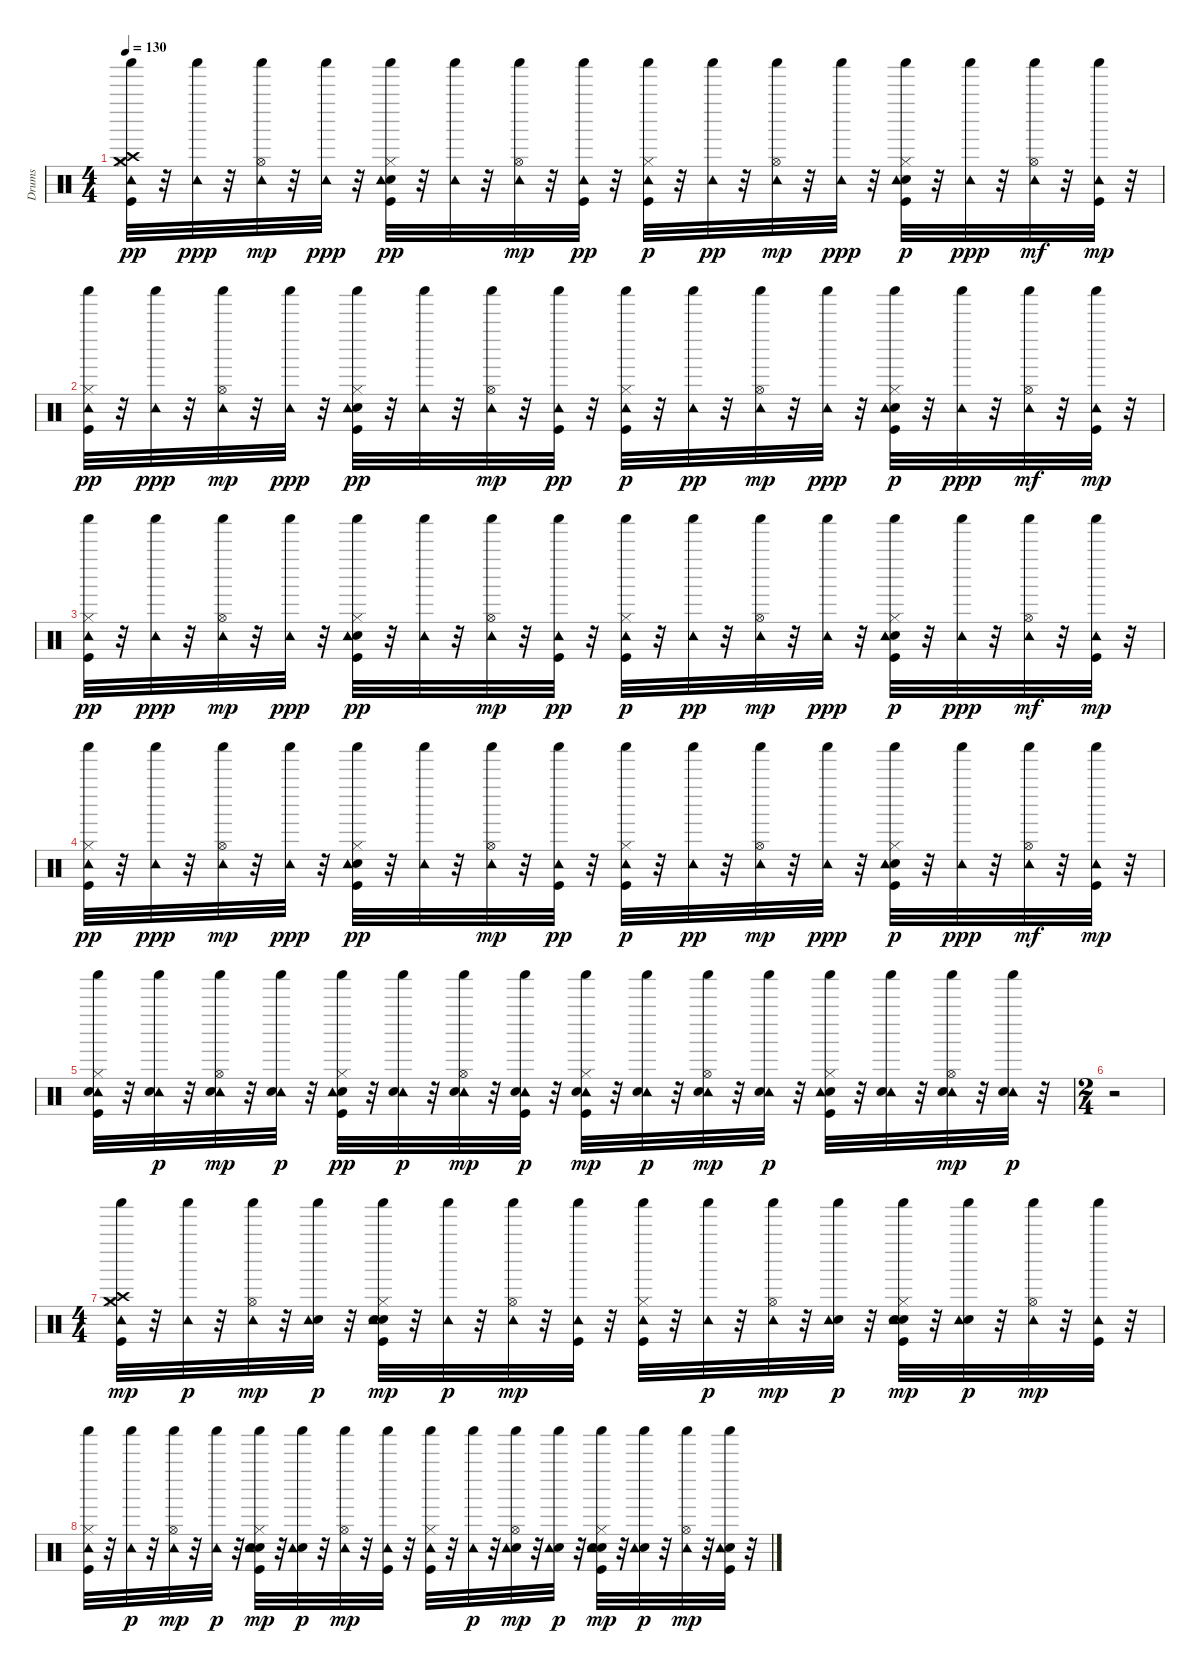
\track ("Drums" "Drums") {instrument percussion}
\staff {score}
\articulation defaults
\ts (4 4)
\tempo 130
\clef neutral
\ks c
("Kick (hit)" "Hi-Hat (closed)" "Crash high (hit)" "Crash medium (hit)" "Shaker (hit)" "Tambourine (hit)").32{dy pp} r.32 ("Shaker (hit)" "Tambourine (hit)").32{dy ppp} r.32 ("Hi-Hat (open)" "Shaker (hit)" "Tambourine (hit)").32{dy mp} r.32 ("Shaker (hit)" "Tambourine (hit)").32{dy ppp} r.32 ("Kick (hit)" "Hi-Hat (closed)" "Shaker (hit)" "Snare (hit) 2" "Tambourine (hit)").32{dy pp} r.32 ("Shaker (hit)" "Tambourine (hit)").32 r.32 ("Hi-Hat (open)" "Shaker (hit)" "Tambourine (hit)").32{dy mp} r.32 ("Shaker (hit)" "Kick (hit)" "Tambourine (hit)").32{dy pp} r.32 ("Kick (hit)" "Hi-Hat (closed)" "Shaker (hit)" "Tambourine (hit)").32{dy p} r.32 ("Shaker (hit)" "Tambourine (hit)").32{dy pp} r.32 ("Hi-Hat (open)" "Shaker (hit)" "Tambourine (hit)").32{dy mp} r.32 ("Shaker (hit)" "Tambourine (hit)").32{dy ppp} r.32 ("Kick (hit)" "Hi-Hat (closed)" "Shaker (hit)" "Snare (hit) 2" "Tambourine (hit)").32{dy p} r.32 ("Shaker (hit)" "Tambourine (hit)").32{dy ppp} r.32 ("Hi-Hat (open)" "Shaker (hit)" "Tambourine (hit)").32{dy mf} r.32 ("Shaker (hit)" "Tambourine (hit)" "Kick (hit)").32{dy mp} r.32 |
("Kick (hit)" "Hi-Hat (closed)" "Shaker (hit)" "Tambourine (hit)").32{dy pp} r.32 ("Shaker (hit)" "Tambourine (hit)").32{dy ppp} r.32 ("Hi-Hat (open)" "Shaker (hit)" "Tambourine (hit)").32{dy mp} r.32 ("Shaker (hit)" "Tambourine (hit)").32{dy ppp} r.32 ("Kick (hit)" "Hi-Hat (closed)" "Shaker (hit)" "Snare (hit) 2" "Tambourine (hit)").32{dy pp} r.32 ("Shaker (hit)" "Tambourine (hit)").32 r.32 ("Hi-Hat (open)" "Shaker (hit)" "Tambourine (hit)").32{dy mp} r.32 ("Shaker (hit)" "Kick (hit)" "Tambourine (hit)").32{dy pp} r.32 ("Kick (hit)" "Hi-Hat (closed)" "Shaker (hit)" "Tambourine (hit)").32{dy p} r.32 ("Shaker (hit)" "Tambourine (hit)").32{dy pp} r.32 ("Hi-Hat (open)" "Shaker (hit)" "Tambourine (hit)").32{dy mp} r.32 ("Shaker (hit)" "Tambourine (hit)").32{dy ppp} r.32 ("Kick (hit)" "Hi-Hat (closed)" "Shaker (hit)" "Snare (hit) 2" "Tambourine (hit)").32{dy p} r.32 ("Shaker (hit)" "Tambourine (hit)").32{dy ppp} r.32 ("Hi-Hat (open)" "Shaker (hit)" "Tambourine (hit)").32{dy mf} r.32 ("Shaker (hit)" "Tambourine (hit)" "Kick (hit)").32{dy mp} r.32 |
("Kick (hit)" "Hi-Hat (closed)" "Shaker (hit)" "Tambourine (hit)").32{dy pp} r.32 ("Shaker (hit)" "Tambourine (hit)").32{dy ppp} r.32 ("Hi-Hat (open)" "Shaker (hit)" "Tambourine (hit)").32{dy mp} r.32 ("Shaker (hit)" "Tambourine (hit)").32{dy ppp} r.32 ("Kick (hit)" "Hi-Hat (closed)" "Shaker (hit)" "Snare (hit) 2" "Tambourine (hit)").32{dy pp} r.32 ("Shaker (hit)" "Tambourine (hit)").32 r.32 ("Hi-Hat (open)" "Shaker (hit)" "Tambourine (hit)").32{dy mp} r.32 ("Shaker (hit)" "Kick (hit)" "Tambourine (hit)").32{dy pp} r.32 ("Kick (hit)" "Hi-Hat (closed)" "Shaker (hit)" "Tambourine (hit)").32{dy p} r.32 ("Shaker (hit)" "Tambourine (hit)").32{dy pp} r.32 ("Hi-Hat (open)" "Shaker (hit)" "Tambourine (hit)").32{dy mp} r.32 ("Shaker (hit)" "Tambourine (hit)").32{dy ppp} r.32 ("Kick (hit)" "Hi-Hat (closed)" "Shaker (hit)" "Snare (hit) 2" "Tambourine (hit)").32{dy p} r.32 ("Shaker (hit)" "Tambourine (hit)").32{dy ppp} r.32 ("Hi-Hat (open)" "Shaker (hit)" "Tambourine (hit)").32{dy mf} r.32 ("Shaker (hit)" "Tambourine (hit)" "Kick (hit)").32{dy mp} r.32 |
("Kick (hit)" "Hi-Hat (closed)" "Shaker (hit)" "Tambourine (hit)").32{dy pp} r.32 ("Shaker (hit)" "Tambourine (hit)").32{dy ppp} r.32 ("Hi-Hat (open)" "Shaker (hit)" "Tambourine (hit)").32{dy mp} r.32 ("Shaker (hit)" "Tambourine (hit)").32{dy ppp} r.32 ("Kick (hit)" "Hi-Hat (closed)" "Shaker (hit)" "Snare (hit) 2" "Tambourine (hit)").32{dy pp} r.32 ("Shaker (hit)" "Tambourine (hit)").32 r.32 ("Hi-Hat (open)" "Shaker (hit)" "Tambourine (hit)").32{dy mp} r.32 ("Shaker (hit)" "Kick (hit)" "Tambourine (hit)").32{dy pp} r.32 ("Kick (hit)" "Hi-Hat (closed)" "Shaker (hit)" "Tambourine (hit)").32{dy p} r.32 ("Shaker (hit)" "Tambourine (hit)").32{dy pp} r.32 ("Hi-Hat (open)" "Shaker (hit)" "Tambourine (hit)").32{dy mp} r.32 ("Shaker (hit)" "Tambourine (hit)").32{dy ppp} r.32 ("Kick (hit)" "Hi-Hat (closed)" "Shaker (hit)" "Snare (hit) 2" "Tambourine (hit)").32{dy p} r.32 ("Shaker (hit)" "Tambourine (hit)").32{dy ppp} r.32 ("Hi-Hat (open)" "Shaker (hit)" "Tambourine (hit)").32{dy mf} r.32 ("Shaker (hit)" "Tambourine (hit)" "Kick (hit)").32{dy mp} r.32 |
("Kick (hit)" "Hi-Hat (closed)" "Shaker (hit)" "Tambourine (hit)" "Snare (hit) 2").32 r.32 ("Shaker (hit)" "Tambourine (hit)" "Snare (hit) 2").32{dy p} r.32 ("Hi-Hat (open)" "Shaker (hit)" "Tambourine (hit)" "Snare (hit) 2").32{dy mp} r.32 ("Shaker (hit)" "Tambourine (hit)" "Snare (hit) 2").32{dy p} r.32 ("Kick (hit)" "Hi-Hat (closed)" "Shaker (hit)" "Snare (hit) 2" "Tambourine (hit)").32{dy pp} r.32 ("Shaker (hit)" "Tambourine (hit)" "Snare (hit) 2").32{dy p} r.32 ("Hi-Hat (open)" "Shaker (hit)" "Tambourine (hit)" "Snare (hit) 2").32{dy mp} r.32 ("Shaker (hit)" "Kick (hit)" "Tambourine (hit)" "Snare (hit) 2").32{dy p} r.32 ("Kick (hit)" "Hi-Hat (closed)" "Shaker (hit)" "Tambourine (hit)" "Snare (hit) 2").32{dy mp} r.32 ("Shaker (hit)" "Tambourine (hit)" "Snare (hit) 2").32{dy p} r.32 ("Hi-Hat (open)" "Shaker (hit)" "Tambourine (hit)" "Snare (hit) 2").32{dy mp} r.32 ("Shaker (hit)" "Tambourine (hit)" "Snare (hit) 2").32{dy p} r.32 ("Kick (hit)" "Hi-Hat (closed)" "Shaker (hit)" "Snare (hit) 2" "Tambourine (hit)").32 r.32 ("Shaker (hit)" "Tambourine (hit)" "Snare (hit) 2").32 r.32 ("Hi-Hat (open)" "Shaker (hit)" "Tambourine (hit)" "Snare (hit) 2").32{dy mp} r.32 ("Shaker (hit)" "Tambourine (hit)" "Snare (hit) 2").32{dy p} r.32 |
\ts (2 4)
r.2 |
\ts (4 4)
("Kick (hit)" "Hi-Hat (closed)" "Crash high (hit)" "Crash medium (hit)" "Tambourine (hit)" "Shaker (hit)").32{dy mp} r.32 ("Tambourine (hit)" "Shaker (hit)").32{dy p} r.32 ("Tambourine (hit)" "Hi-Hat (open)" "Shaker (hit)").32{dy mp} r.32 ("Electric Snare (hit)" "Tambourine (hit)" "Shaker (hit)").32{dy p} r.32 ("Kick (hit)" "Hi-Hat (closed)" "Hand Clap (hit)" "Tambourine (hit)" "Shaker (hit)" "Snare (hit) 2").32{dy mp} r.32 ("Tambourine (hit)" "Shaker (hit)").32{dy p} r.32 ("Tambourine (hit)" "Hi-Hat (open)" "Shaker (hit)").32{dy mp} r.32 ("Tambourine (hit)" "Shaker (hit)" "Kick (hit)").32 r.32 ("Kick (hit)" "Hi-Hat (closed)" "Tambourine (hit)" "Shaker (hit)").32 r.32 ("Tambourine (hit)" "Shaker (hit)").32{dy p} r.32 ("Tambourine (hit)" "Hi-Hat (open)" "Shaker (hit)").32{dy mp} r.32 ("Electric Snare (hit)" "Tambourine (hit)" "Shaker (hit)").32{dy p} r.32 ("Kick (hit)" "Hi-Hat (closed)" "Hand Clap (hit)" "Tambourine (hit)" "Shaker (hit)" "Snare (hit) 2").32{dy mp} r.32 ("Electric Snare (hit)" "Tambourine (hit)" "Shaker (hit)").32{dy p} r.32 ("Tambourine (hit)" "Hi-Hat (open)" "Shaker (hit)").32{dy mp} r.32 ("Tambourine (hit)" "Shaker (hit)" "Kick (hit)").32 r.32 |
("Kick (hit)" "Hi-Hat (closed)" "Tambourine (hit)" "Shaker (hit)").32 r.32 ("Tambourine (hit)" "Shaker (hit)").32{dy p} r.32 ("Tambourine (hit)" "Hi-Hat (open)" "Shaker (hit)").32{dy mp} r.32 ("Tambourine (hit)" "Shaker (hit)").32{dy p} r.32 ("Kick (hit)" "Hi-Hat (closed)" "Hand Clap (hit)" "Tambourine (hit)" "Shaker (hit)" "Snare (hit) 2").32{dy mp} r.32 ("Electric Snare (hit)" "Tambourine (hit)" "Shaker (hit)").32{dy p} r.32 ("Tambourine (hit)" "Hi-Hat (open)" "Shaker (hit)").32{dy mp} r.32 ("Tambourine (hit)" "Shaker (hit)" "Kick (hit)").32 r.32 ("Kick (hit)" "Hi-Hat (closed)" "Tambourine (hit)" "Shaker (hit)").32 r.32 ("Tambourine (hit)" "Shaker (hit)").32{dy p} r.32 ("Hand Clap (hit)" "Tambourine (hit)" "Hi-Hat (open)" "Shaker (hit)").32{dy mp} r.32 ("Electric Snare (hit)" "Tambourine (hit)" "Shaker (hit)").32{dy p} r.32 ("Kick (hit)" "Hi-Hat (closed)" "Hand Clap (hit)" "Tambourine (hit)" "Shaker (hit)" "Snare (hit) 2").32{dy mp} r.32 ("Electric Snare (hit)" "Tambourine (hit)" "Shaker (hit)").32{dy p} r.32 ("Tambourine (hit)" "Hi-Hat (open)" "Shaker (hit)").32{dy mp} r.32 ("Electric Snare (hit)" "Tambourine (hit)" "Shaker (hit)" "Kick (hit)").32 r.32
